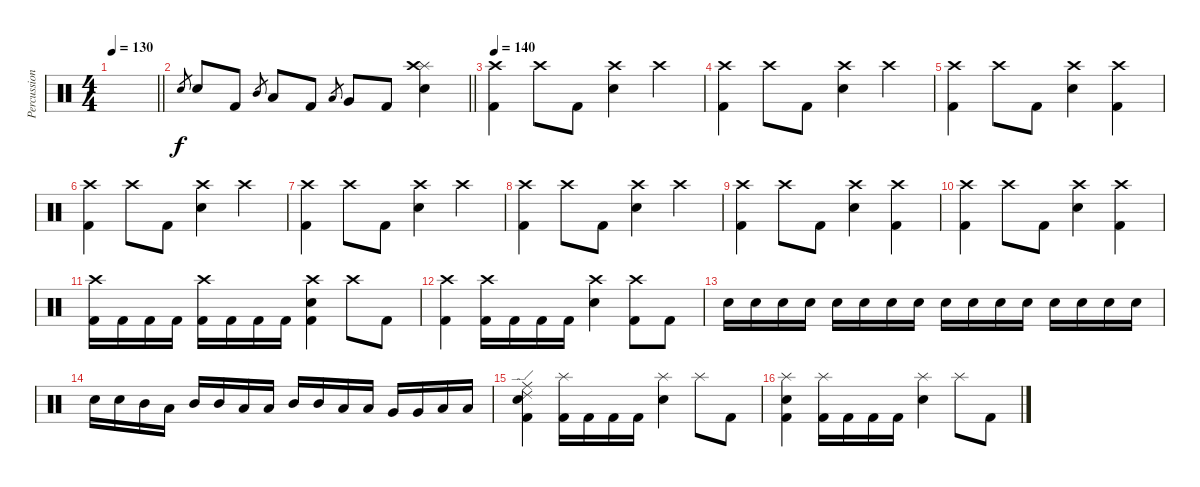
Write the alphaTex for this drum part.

\track ("Percussion" "Percussion") {instrument percussion}
\staff {score}
\articulation defaults
\ts (4 4)
\tempo 130
\clef neutral
\barLineRight lightlight
\ks c
|
\barLineRight lightlight "Electric Snare (hit)".8{gr} "Electric Snare (hit)".8 "Kick (hit) 2".8 "Mid Tom (hit)".8{gr} "Low Tom (hit)".8 "Kick (hit) 2".8 "Low Tom (hit)".8{gr} "Very Low Tom (hit)".8 "Kick (hit) 2".8
("Splash (hit)" "Crash high (hit)" "Electric Snare (hit)").4 |
\section ("" "")
\tempo 140
("Crash high (hit)" "Kick (hit) 2").4 "Crash high (hit)".8 "Kick (hit) 2".8 ("Crash high (hit)" "Electric Snare (hit)").4 "Crash high (hit)".4 |
("Crash high (hit)" "Kick (hit) 2").4 "Crash high (hit)".8 "Kick (hit) 2".8 ("Crash high (hit)" "Electric Snare (hit)").4 "Crash high (hit)".4 |
("Crash high (hit)" "Kick (hit) 2").4 "Crash high (hit)".8 "Kick (hit) 2".8 ("Crash high (hit)" "Electric Snare (hit)").4 ("Crash high (hit)" "Kick (hit) 2").4 |
("Crash high (hit)" "Kick (hit) 2").4 "Crash high (hit)".8 "Kick (hit) 2".8 ("Crash high (hit)" "Electric Snare (hit)").4 "Crash high (hit)".4 |
("Crash high (hit)" "Kick (hit) 2").4 "Crash high (hit)".8 "Kick (hit) 2".8 ("Crash high (hit)" "Electric Snare (hit)").4 "Crash high (hit)".4 |
("Crash high (hit)" "Kick (hit) 2").4 "Crash high (hit)".8 "Kick (hit) 2".8 ("Crash high (hit)" "Electric Snare (hit)").4 "Crash high (hit)".4 |
("Crash high (hit)" "Kick (hit) 2").4 "Crash high (hit)".8 "Kick (hit) 2".8 ("Crash high (hit)" "Electric Snare (hit)").4 ("Crash high (hit)" "Kick (hit) 2").4 |
("Crash high (hit)" "Kick (hit) 2").4 "Crash high (hit)".8 "Kick (hit) 2".8 ("Crash high (hit)" "Electric Snare (hit)").4 ("Crash high (hit)" "Kick (hit) 2").4 |
("Crash high (hit)" "Kick (hit) 2").16 "Kick (hit) 2".16 "Kick (hit) 2".16 "Kick (hit) 2".16 ("Crash high (hit)" "Kick (hit) 2").16 "Kick (hit) 2".16 "Kick (hit) 2".16 "Kick (hit) 2".16 ("Crash high (hit)" "Electric Snare (hit)" "Kick (hit) 2").4 "Crash high (hit)".8 "Kick (hit) 2".8 |
("Crash high (hit)" "Kick (hit) 2").4 ("Crash high (hit)" "Kick (hit) 2").16 "Kick (hit) 2".16 "Kick (hit) 2".16 "Kick (hit) 2".16 ("Crash high (hit)" "Electric Snare (hit)").4 ("Crash high (hit)" "Kick (hit) 2").8 "Kick (hit) 2".8 |
"Electric Snare (hit)".16 "Electric Snare (hit)".16 "Electric Snare (hit)".16 "Electric Snare (hit)".16 "Electric Snare (hit)".16 "Electric Snare (hit)".16 "Electric Snare (hit)".16 "Electric Snare (hit)".16 "Electric Snare (hit)".16 "Electric Snare (hit)".16 "Electric Snare (hit)".16 "Electric Snare (hit)".16 "Electric Snare (hit)".16 "Electric Snare (hit)".16 "Electric Snare (hit)".16 "Electric Snare (hit)".16 |
"Electric Snare (hit)".16 "Electric Snare (hit)".16 "Mid Tom (hit)".16 "Low Tom (hit)".16 "Mid Tom (hit)".16 "Mid Tom (hit)".16 "Low Tom (hit)".16 "Low Tom (hit)".16 "Mid Tom (hit)".16 "Mid Tom (hit)".16 "Low Tom (hit)".16 "Low Tom (hit)".16 "Very Low Tom (hit)".16 "Very Low Tom (hit)".16 "Low Floor Tom (hit)".16 "Low Floor Tom (hit)".16 |
("Ride (edge) 2" "Ride (middle)" "Electric Snare (hit)" "Kick (hit) 2").4 ("Splash (hit)" "Kick (hit) 2").16 "Kick (hit) 2".16 "Kick (hit) 2".16 "Kick (hit) 2".16 ("Splash (hit)" "Electric Snare (hit)").4 "Splash (hit)".8 "Kick (hit) 2".8 |
("Splash (hit)" "Electric Snare (hit)" "Kick (hit) 2").4 ("Splash (hit)" "Kick (hit) 2").16 "Kick (hit) 2".16 "Kick (hit) 2".16 "Kick (hit) 2".16 ("Splash (hit)" "Electric Snare (hit)").4 "Splash (hit)".8 "Kick (hit) 2".8
